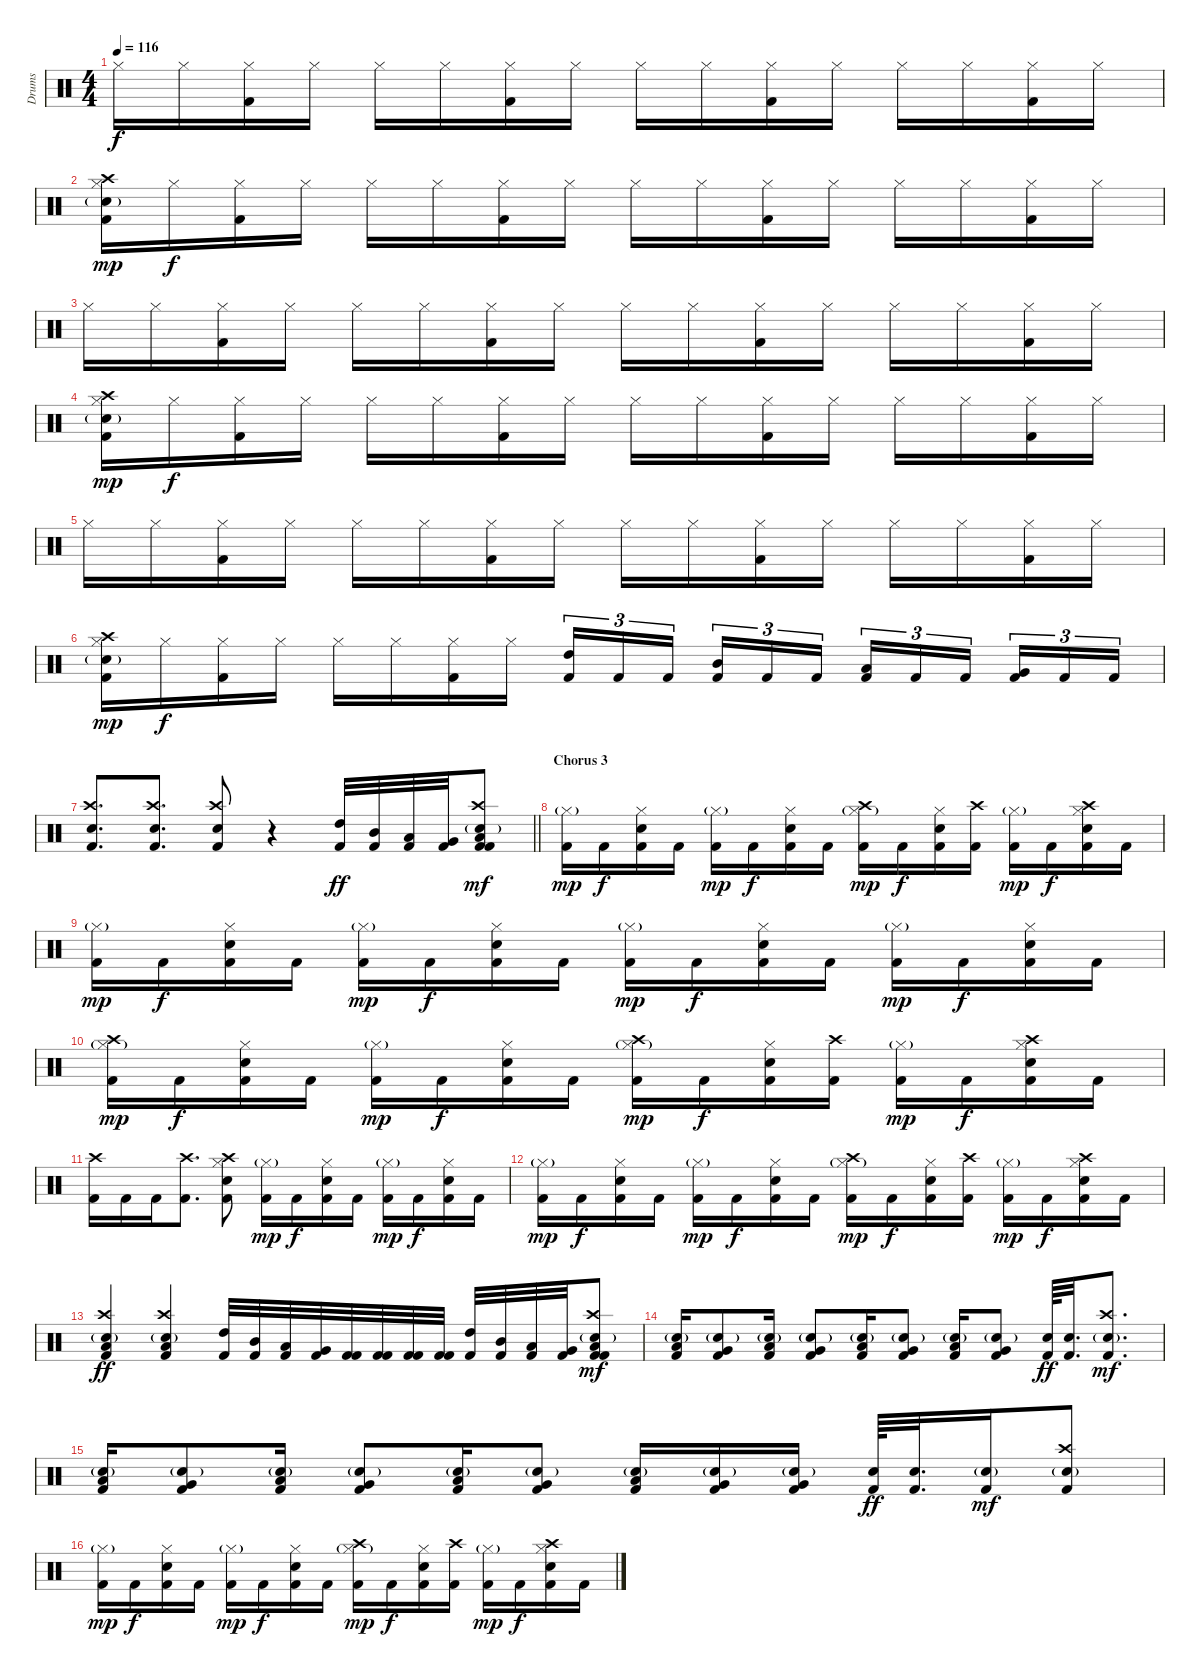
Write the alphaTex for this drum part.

\track ("Drums" "Drums") {instrument percussion}
\staff {score}
\articulation defaults
\ts (4 4)
\tempo 116
\clef neutral
\ks c "Hi-Hat (closed)".16{dy f} "Hi-Hat (closed)".16
("Hi-Hat (closed)" "Kick (hit) 2").16 "Hi-Hat (closed)".16 "Hi-Hat (closed)".16 "Hi-Hat (closed)".16 ("Hi-Hat (closed)" "Kick (hit) 2").16 "Hi-Hat (closed)".16 "Hi-Hat (closed)".16 "Hi-Hat (closed)".16 ("Hi-Hat (closed)" "Kick (hit) 2").16 "Hi-Hat (closed)".16 "Hi-Hat (closed)".16 "Hi-Hat (closed)".16 ("Hi-Hat (closed)" "Kick (hit) 2").16 "Hi-Hat (closed)".16 |
("Hi-Hat (closed)" "Kick (hit) 2" "Crash high (hit)" "Electric Snare (hit)"{g}).16{dy mp} "Hi-Hat (closed)".16{dy f} ("Hi-Hat (closed)" "Kick (hit) 2").16 "Hi-Hat (closed)".16 "Hi-Hat (closed)".16 "Hi-Hat (closed)".16 ("Hi-Hat (closed)" "Kick (hit) 2").16 "Hi-Hat (closed)".16 "Hi-Hat (closed)".16 "Hi-Hat (closed)".16 ("Hi-Hat (closed)" "Kick (hit) 2").16 "Hi-Hat (closed)".16 "Hi-Hat (closed)".16 "Hi-Hat (closed)".16 ("Hi-Hat (closed)" "Kick (hit) 2").16 "Hi-Hat (closed)".16 |
"Hi-Hat (closed)".16 "Hi-Hat (closed)".16 ("Hi-Hat (closed)" "Kick (hit) 2").16 "Hi-Hat (closed)".16 "Hi-Hat (closed)".16 "Hi-Hat (closed)".16 ("Hi-Hat (closed)" "Kick (hit) 2").16 "Hi-Hat (closed)".16 "Hi-Hat (closed)".16 "Hi-Hat (closed)".16 ("Hi-Hat (closed)" "Kick (hit) 2").16 "Hi-Hat (closed)".16 "Hi-Hat (closed)".16 "Hi-Hat (closed)".16 ("Hi-Hat (closed)" "Kick (hit) 2").16 "Hi-Hat (closed)".16 |
("Hi-Hat (closed)" "Crash high (hit)" "Kick (hit) 2" "Electric Snare (hit)"{g}).16{dy mp} "Hi-Hat (closed)".16{dy f} ("Hi-Hat (closed)" "Kick (hit) 2").16 "Hi-Hat (closed)".16 "Hi-Hat (closed)".16 "Hi-Hat (closed)".16 ("Hi-Hat (closed)" "Kick (hit) 2").16 "Hi-Hat (closed)".16 "Hi-Hat (closed)".16 "Hi-Hat (closed)".16 ("Hi-Hat (closed)" "Kick (hit) 2").16 "Hi-Hat (closed)".16 "Hi-Hat (closed)".16 "Hi-Hat (closed)".16 ("Hi-Hat (closed)" "Kick (hit) 2").16 "Hi-Hat (closed)".16 |
"Hi-Hat (closed)".16 "Hi-Hat (closed)".16 ("Hi-Hat (closed)" "Kick (hit) 2").16 "Hi-Hat (closed)".16 "Hi-Hat (closed)".16 "Hi-Hat (closed)".16 ("Hi-Hat (closed)" "Kick (hit) 2").16 "Hi-Hat (closed)".16 "Hi-Hat (closed)".16 "Hi-Hat (closed)".16 ("Hi-Hat (closed)" "Kick (hit) 2").16 "Hi-Hat (closed)".16 "Hi-Hat (closed)".16 "Hi-Hat (closed)".16 ("Hi-Hat (closed)" "Kick (hit) 2").16 "Hi-Hat (closed)".16 |
("Hi-Hat (closed)" "Kick (hit) 2" "Crash high (hit)" "Electric Snare (hit)"{g}).16{dy mp} "Hi-Hat (closed)".16{dy f} ("Hi-Hat (closed)" "Kick (hit) 2").16 "Hi-Hat (closed)".16 "Hi-Hat (closed)".16 "Hi-Hat (closed)".16 ("Hi-Hat (closed)" "Kick (hit) 2").16 "Hi-Hat (closed)".16 ("Kick (hit) 2" "High Tom (hit)").16{tu (3 2)} "Kick (hit) 2".16{tu (3 2)} "Kick (hit) 2".16{tu (3 2) beam splitsecondary} ("Kick (hit) 2" "Mid Tom (hit)").16{tu (3 2)} "Kick (hit) 2".16{tu (3 2)} "Kick (hit) 2".16{tu (3 2)} ("Kick (hit) 2" "Low Tom (hit)").16{tu (3 2)} "Kick (hit) 2".16{tu (3 2)} "Kick (hit) 2".16{tu (3 2) beam splitsecondary} ("Kick (hit) 2" "Very Low Tom (hit)").16{tu (3 2)} "Kick (hit) 2".16{tu (3 2)} "Kick (hit) 2".16{tu (3 2)} |
\barLineRight lightlight
("Kick (hit) 2" "Electric Snare (hit)" "Crash high (hit)").8{d} ("Kick (hit) 2" "Electric Snare (hit)" "Crash high (hit)").8{d} ("Kick (hit) 2" "Electric Snare (hit)" "Crash high (hit)").8 r.4 ("Kick (hit) 2" "High Tom (hit)").32{dy ff} ("Kick (hit) 2" "Mid Tom (hit)").32 ("Kick (hit) 2" "Low Tom (hit)").32 ("Kick (hit) 2" "Very Low Tom (hit)").32 ("Kick (hit) 2" "Kick (hit) 2" "Crash high (hit)" "Low Floor Tom (hit)" "Electric Snare (hit)"{g}).8{dy mf} |
\section ("" "Chorus 3")
("Kick (hit) 2" "Hi-Hat (closed)"{g}).16{dy mp} "Kick (hit) 2".16{dy f} ("Kick (hit) 2" "Electric Snare (hit)" "Hi-Hat (closed)").16 "Kick (hit) 2".16 ("Kick (hit) 2" "Hi-Hat (closed)"{g}).16{dy mp} "Kick (hit) 2".16{dy f} ("Kick (hit) 2" "Electric Snare (hit)" "Hi-Hat (closed)").16 "Kick (hit) 2".16 ("Kick (hit) 2" "Hi-Hat (closed)"{g} "Crash high (hit)").16{dy mp} "Kick (hit) 2".16{dy f} ("Kick (hit) 2" "Electric Snare (hit)" "Hi-Hat (closed)").16 ("Kick (hit) 2" "Crash high (hit)").16 ("Kick (hit) 2" "Hi-Hat (closed)"{g}).16{dy mp} "Kick (hit) 2".16{dy f} ("Kick (hit) 2" "Electric Snare (hit)" "Hi-Hat (closed)" "Crash high (hit)").16 "Kick (hit) 2".16 |
("Kick (hit) 2" "Hi-Hat (closed)"{g}).16{dy mp} "Kick (hit) 2".16{dy f} ("Kick (hit) 2" "Electric Snare (hit)" "Hi-Hat (closed)").16 "Kick (hit) 2".16 ("Kick (hit) 2" "Hi-Hat (closed)"{g}).16{dy mp} "Kick (hit) 2".16{dy f} ("Kick (hit) 2" "Electric Snare (hit)" "Hi-Hat (closed)").16 "Kick (hit) 2".16 ("Kick (hit) 2" "Hi-Hat (closed)"{g}).16{dy mp} "Kick (hit) 2".16{dy f} ("Kick (hit) 2" "Electric Snare (hit)" "Hi-Hat (closed)").16 "Kick (hit) 2".16 ("Kick (hit) 2" "Hi-Hat (closed)"{g}).16{dy mp} "Kick (hit) 2".16{dy f} ("Kick (hit) 2" "Electric Snare (hit)" "Hi-Hat (closed)").16 "Kick (hit) 2".16 |
("Kick (hit) 2" "Hi-Hat (closed)"{g} "Crash high (hit)").16{dy mp} "Kick (hit) 2".16{dy f} ("Kick (hit) 2" "Electric Snare (hit)" "Hi-Hat (closed)").16 "Kick (hit) 2".16 ("Kick (hit) 2" "Hi-Hat (closed)"{g}).16{dy mp} "Kick (hit) 2".16{dy f} ("Kick (hit) 2" "Electric Snare (hit)" "Hi-Hat (closed)").16 "Kick (hit) 2".16 ("Kick (hit) 2" "Hi-Hat (closed)"{g} "Crash high (hit)").16{dy mp} "Kick (hit) 2".16{dy f} ("Kick (hit) 2" "Electric Snare (hit)" "Hi-Hat (closed)").16 ("Kick (hit) 2" "Crash high (hit)").16 ("Kick (hit) 2" "Hi-Hat (closed)"{g}).16{dy mp} "Kick (hit) 2".16{dy f} ("Kick (hit) 2" "Electric Snare (hit)" "Hi-Hat (closed)" "Crash high (hit)").16 "Kick (hit) 2".16 |
("Kick (hit) 2" "Crash high (hit)").16 "Kick (hit) 2".16 "Kick (hit) 2".16 ("Kick (hit) 2" "Crash high (hit)").8{d} ("Kick (hit) 2" "Crash high (hit)" "Hi-Hat (closed)" "Electric Snare (hit)").8 ("Kick (hit) 2" "Hi-Hat (closed)"{g}).16{dy mp} "Kick (hit) 2".16{dy f} ("Kick (hit) 2" "Electric Snare (hit)" "Hi-Hat (closed)").16 "Kick (hit) 2".16 ("Kick (hit) 2" "Hi-Hat (closed)"{g}).16{dy mp} "Kick (hit) 2".16{dy f} ("Kick (hit) 2" "Electric Snare (hit)" "Hi-Hat (closed)").16 "Kick (hit) 2".16 |
("Kick (hit) 2" "Hi-Hat (closed)"{g}).16{dy mp} "Kick (hit) 2".16{dy f} ("Kick (hit) 2" "Electric Snare (hit)" "Hi-Hat (closed)").16 "Kick (hit) 2".16 ("Kick (hit) 2" "Hi-Hat (closed)"{g}).16{dy mp} "Kick (hit) 2".16{dy f} ("Kick (hit) 2" "Electric Snare (hit)" "Hi-Hat (closed)").16 "Kick (hit) 2".16 ("Kick (hit) 2" "Hi-Hat (closed)"{g} "Crash high (hit)").16{dy mp} "Kick (hit) 2".16{dy f} ("Kick (hit) 2" "Electric Snare (hit)" "Hi-Hat (closed)").16 ("Kick (hit) 2" "Crash high (hit)").16 ("Kick (hit) 2" "Hi-Hat (closed)"{g}).16{dy mp} "Kick (hit) 2".16{dy f} ("Kick (hit) 2" "Electric Snare (hit)" "Hi-Hat (closed)" "Crash high (hit)").16 "Kick (hit) 2".16 |
("Kick (hit) 2" "Electric Snare (hit)"{g} "Low Tom (hit)" "Crash high (hit)").4{dy ff} ("Kick (hit) 2" "Electric Snare (hit)"{g} "Low Tom (hit)" "Crash high (hit)").4 ("Kick (hit) 2" "High Tom (hit)").32 ("Kick (hit) 2" "Mid Tom (hit)").32 ("Kick (hit) 2" "Low Tom (hit)").32 ("Kick (hit) 2" "Very Low Tom (hit)").32 ("Kick (hit) 2" "Kick (hit) 2").32 ("Kick (hit) 2" "Kick (hit) 2").32 ("Kick (hit) 2" "Kick (hit) 2").32 ("Kick (hit) 2" "Kick (hit) 2").32 ("Kick (hit) 2" "High Tom (hit)").32 ("Kick (hit) 2" "Mid Tom (hit)").32 ("Kick (hit) 2" "Low Tom (hit)").32 ("Kick (hit) 2" "Very Low Tom (hit)").32 ("Kick (hit) 2" "Kick (hit) 2" "Crash high (hit)" "Low Floor Tom (hit)" "Electric Snare (hit)"{g}).8{dy mf} |
("Kick (hit) 2" "Low Tom (hit)" "Electric Snare (hit)"{g}).16 ("Kick (hit) 2" "Very Low Tom (hit)" "Electric Snare (hit)"{g}).8 ("Kick (hit) 2" "Low Tom (hit)" "Electric Snare (hit)"{g}).16 ("Kick (hit) 2" "Very Low Tom (hit)" "Electric Snare (hit)"{g}).8 ("Kick (hit) 2" "Low Tom (hit)" "Electric Snare (hit)"{g}).16 ("Kick (hit) 2" "Very Low Tom (hit)" "Electric Snare (hit)"{g}).8 ("Kick (hit) 2" "Low Tom (hit)" "Electric Snare (hit)"{g}).16 ("Kick (hit) 2" "Very Low Tom (hit)" "Electric Snare (hit)"{g}).8 ("Electric Snare (hit)" "Kick (hit) 2").64{dy ff} ("Electric Snare (hit)" "Kick (hit) 2").32{d} ("Kick (hit) 2" "Crash high (hit)" "Electric Snare (hit)"{g}).8{d dy mf} |
("Kick (hit) 2" "Low Tom (hit)" "Electric Snare (hit)"{g}).16 ("Kick (hit) 2" "Very Low Tom (hit)" "Electric Snare (hit)"{g}).8 ("Kick (hit) 2" "Low Tom (hit)" "Electric Snare (hit)"{g}).16 ("Kick (hit) 2" "Very Low Tom (hit)" "Electric Snare (hit)"{g}).8 ("Kick (hit) 2" "Low Tom (hit)" "Electric Snare (hit)"{g}).16 ("Kick (hit) 2" "Very Low Tom (hit)" "Electric Snare (hit)"{g}).8 ("Kick (hit) 2" "Low Tom (hit)" "Electric Snare (hit)"{g}).16 ("Kick (hit) 2" "Very Low Tom (hit)" "Electric Snare (hit)"{g}).16 ("Kick (hit) 2" "Very Low Tom (hit)" "Electric Snare (hit)"{g}).16 ("Electric Snare (hit)" "Kick (hit) 2").64{dy ff} ("Electric Snare (hit)" "Kick (hit) 2").32{d} ("Kick (hit) 2" "Electric Snare (hit)"{g}).16{dy mf} ("Kick (hit) 2" "Crash high (hit)" "Electric Snare (hit)"{g}).8 |
("Kick (hit) 2" "Hi-Hat (closed)"{g}).16{dy mp} "Kick (hit) 2".16{dy f} ("Kick (hit) 2" "Electric Snare (hit)" "Hi-Hat (closed)").16 "Kick (hit) 2".16 ("Kick (hit) 2" "Hi-Hat (closed)"{g}).16{dy mp} "Kick (hit) 2".16{dy f} ("Kick (hit) 2" "Electric Snare (hit)" "Hi-Hat (closed)").16 "Kick (hit) 2".16 ("Kick (hit) 2" "Hi-Hat (closed)"{g} "Crash high (hit)").16{dy mp} "Kick (hit) 2".16{dy f} ("Kick (hit) 2" "Electric Snare (hit)" "Hi-Hat (closed)").16 ("Kick (hit) 2" "Crash high (hit)").16 ("Kick (hit) 2" "Hi-Hat (closed)"{g}).16{dy mp} "Kick (hit) 2".16{dy f} ("Kick (hit) 2" "Electric Snare (hit)" "Hi-Hat (closed)" "Crash high (hit)").16 "Kick (hit) 2".16
